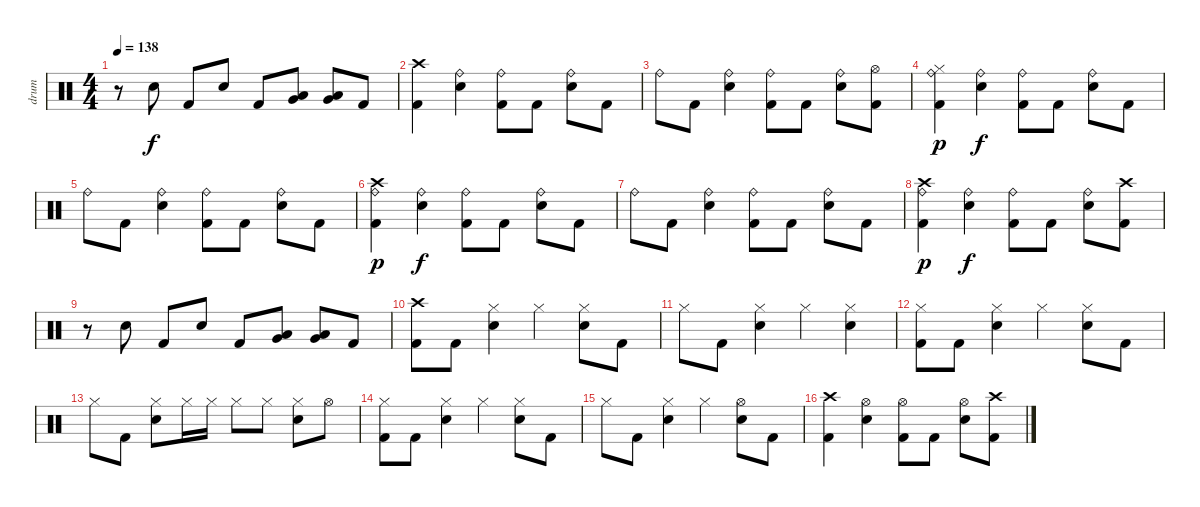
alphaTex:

\track ("drum" "drum") {instrument percussion}
\staff {score}
\articulation defaults
\ts (4 4)
\tempo 138
\clef neutral
\ks c
r.8{dy f} "Snare (hit) 2".8 "Kick (hit) 2".8 "Snare (hit) 2".8 "Kick (hit) 2".8 ("Low Tom (hit)" "Very Low Tom (hit)").8 ("Low Tom (hit)" "Very Low Tom (hit)").8 "Kick (hit) 2".8 |
("Crash high (hit)" "Kick (hit) 2").4 ("Ride (bell)" "Snare (hit) 2").4 ("Ride (bell)" "Kick (hit) 2").8 "Kick (hit) 2".8 ("Ride (bell)" "Snare (hit) 2").8 "Kick (hit) 2".8 |
"Ride (bell)".8 "Kick (hit) 2".8 ("Ride (bell)" "Snare (hit) 2").4 ("Ride (bell)" "Kick (hit) 2").8 "Kick (hit) 2".8 ("Ride (bell)" "Snare (hit) 2").8 ("Hi-Hat (open)" "Kick (hit) 2").8 |
("Ride (bell)" "Hi-Hat (closed)" "Kick (hit) 2").4{dy p} ("Ride (bell)" "Snare (hit) 2").4{dy f} ("Ride (bell)" "Kick (hit) 2").8 "Kick (hit) 2".8 ("Ride (bell)" "Snare (hit) 2").8 "Kick (hit) 2".8 |
"Ride (bell)".8 "Kick (hit) 2".8 ("Ride (bell)" "Snare (hit) 2").4 ("Ride (bell)" "Kick (hit) 2").8 "Kick (hit) 2".8 ("Ride (bell)" "Snare (hit) 2").8 "Kick (hit) 2".8 |
("Crash high (hit)" "Ride (bell)" "Kick (hit) 2").4{dy p} ("Ride (bell)" "Snare (hit) 2").4{dy f} ("Ride (bell)" "Kick (hit) 2").8 "Kick (hit) 2".8 ("Ride (bell)" "Snare (hit) 2").8 "Kick (hit) 2".8 |
"Ride (bell)".8 "Kick (hit) 2".8 ("Ride (bell)" "Snare (hit) 2").4 ("Ride (bell)" "Kick (hit) 2").8 "Kick (hit) 2".8 ("Ride (bell)" "Snare (hit) 2").8 "Kick (hit) 2".8 |
("Crash high (hit)" "Ride (bell)" "Kick (hit) 2").4{dy p} ("Ride (bell)" "Snare (hit) 2").4{dy f} ("Ride (bell)" "Kick (hit) 2").8 "Kick (hit) 2".8 ("Ride (bell)" "Snare (hit) 2").8 ("Crash high (hit)" "Kick (hit) 2").8 |
r.8 "Snare (hit) 2".8 "Kick (hit) 2".8 "Snare (hit) 2".8 "Kick (hit) 2".8 ("Low Tom (hit)" "Very Low Tom (hit)").8 ("Low Tom (hit)" "Very Low Tom (hit)").8 "Kick (hit) 2".8 |
("Crash high (hit)" "Kick (hit) 2").8 "Kick (hit) 2".8 ("Hi-Hat (closed)" "Snare (hit) 2").4 "Hi-Hat (closed)".4 ("Hi-Hat (closed)" "Snare (hit) 2").8 "Kick (hit) 2".8 |
"Hi-Hat (closed)".8 "Kick (hit) 2".8 ("Hi-Hat (closed)" "Snare (hit) 2").4 "Hi-Hat (closed)".4 ("Hi-Hat (closed)" "Snare (hit) 2").4 |
("Hi-Hat (closed)" "Kick (hit) 2").8 "Kick (hit) 2".8 ("Hi-Hat (closed)" "Snare (hit) 2").4 "Hi-Hat (closed)".4 ("Hi-Hat (closed)" "Snare (hit) 2").8 "Kick (hit) 2".8 |
"Hi-Hat (closed)".8 "Kick (hit) 2".8 ("Hi-Hat (closed)" "Snare (hit) 2").8 "Hi-Hat (closed)".16 "Hi-Hat (closed)".16 "Hi-Hat (closed)".8 "Hi-Hat (closed)".8 ("Hi-Hat (closed)" "Snare (hit) 2").8 "Hi-Hat (open)".8 |
("Hi-Hat (closed)" "Kick (hit) 2").8 "Kick (hit) 2".8 ("Hi-Hat (closed)" "Snare (hit) 2").4 "Hi-Hat (closed)".4 ("Hi-Hat (closed)" "Snare (hit) 2").8 "Kick (hit) 2".8 |
"Hi-Hat (closed)".8 "Kick (hit) 2".8 ("Hi-Hat (closed)" "Snare (hit) 2").4 "Hi-Hat (closed)".4 ("Hi-Hat (open)" "Snare (hit) 2").8 "Kick (hit) 2".8 |
("Crash high (hit)" "Kick (hit) 2").4 ("Hi-Hat (open)" "Snare (hit) 2").4 ("Hi-Hat (open)" "Kick (hit) 2").8 "Kick (hit) 2".8 ("Hi-Hat (open)" "Snare (hit) 2").8 ("Crash high (hit)" "Kick (hit) 2").8
